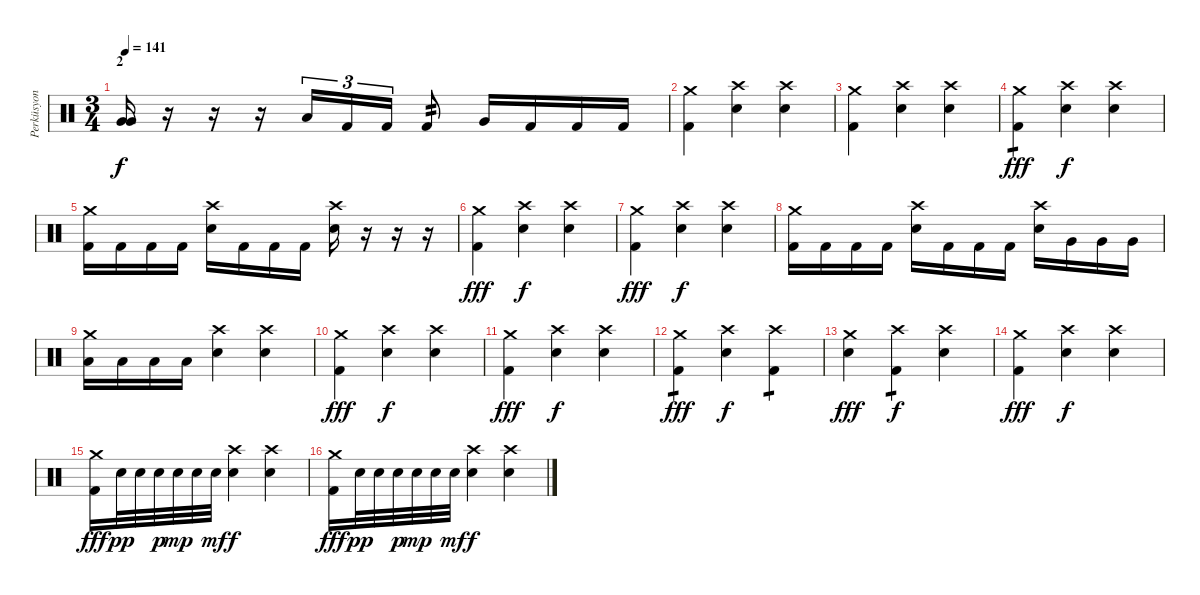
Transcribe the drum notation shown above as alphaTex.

\track ("Perküsyon" "Perküsyon") {instrument percussion}
\staff {score}
\articulation defaults
\ts (3 4)
\section ("" "2")
\tempo 141
\clef neutral
\ks c
("Very Low Tom (hit)" "Very Low Tom (hit)").16{dy f} r.16 r.16 r.16 "Low Floor Tom (hit)".16{tu (3 2)} "Kick (hit) 2".16{tu (3 2)} "Kick (hit) 2".16{tu (3 2)} "Kick (hit) 2".8{tp 2} "Very Low Tom (hit)".16 "Kick (hit) 2".16 "Kick (hit) 2".16 "Kick (hit) 2".16 |
("Crash medium (hit)" "Kick (hit) 2").4 ("Crash high (hit)" "Electric Snare (hit)").4 ("Crash high (hit)" "Electric Snare (hit)").4 |
("Crash medium (hit)" "Kick (hit) 2").4 ("Crash high (hit)" "Electric Snare (hit)").4 ("Crash high (hit)" "Electric Snare (hit)").4 |
("Crash medium (hit)" "Kick (hit) 2").4{tp 1 dy fff} ("Crash high (hit)" "Electric Snare (hit)").4{dy f} ("Crash high (hit)" "Electric Snare (hit)").4 |
("Crash medium (hit)" "Kick (hit) 2").16 "Kick (hit) 2".16 "Kick (hit) 2".16 "Kick (hit) 2".16 ("Crash high (hit)" "Electric Snare (hit)").16 "Kick (hit) 2".16 "Kick (hit) 2".16 "Kick (hit) 2".16 ("Crash high (hit)" "Electric Snare (hit)").16 r.16 r.16 r.16 |
("Crash medium (hit)" "Kick (hit) 2").4{dy fff} ("Crash high (hit)" "Electric Snare (hit)").4{dy f} ("Crash high (hit)" "Electric Snare (hit)").4 |
("Crash medium (hit)" "Kick (hit) 2").4{dy fff} ("Crash high (hit)" "Electric Snare (hit)").4{dy f} ("Crash high (hit)" "Electric Snare (hit)").4 |
("Crash medium (hit)" "Kick (hit) 2").16 "Kick (hit) 2".16 "Kick (hit) 2".16 "Kick (hit) 2".16 ("Crash high (hit)" "Electric Snare (hit)").16 "Kick (hit) 2".16 "Kick (hit) 2".16 "Kick (hit) 2".16 ("Crash high (hit)" "Electric Snare (hit)").16 "Very Low Tom (hit)".16 "Very Low Tom (hit)".16 "Very Low Tom (hit)".16 |
("Crash medium (hit)" "Low Floor Tom (hit)").16 "Low Floor Tom (hit)".16 "Low Floor Tom (hit)".16 "Low Floor Tom (hit)".16 ("Crash high (hit)" "Electric Snare (hit)").4 ("Crash high (hit)" "Electric Snare (hit)").4 |
("Crash medium (hit)" "Kick (hit) 2").4{dy fff} ("Crash high (hit)" "Electric Snare (hit)").4{dy f} ("Crash high (hit)" "Electric Snare (hit)").4 |
("Crash medium (hit)" "Kick (hit) 2").4{dy fff} ("Crash high (hit)" "Electric Snare (hit)").4{dy f} ("Crash high (hit)" "Electric Snare (hit)").4 |
("Crash medium (hit)" "Kick (hit) 2").4{tp 1 dy fff} ("Crash high (hit)" "Electric Snare (hit)").4{dy f} ("Crash high (hit)" "Kick (hit) 2").4{tp 1} |
("Crash medium (hit)" "Electric Snare (hit)").4{dy fff} ("Crash high (hit)" "Kick (hit) 2").4{tp 1 dy f} ("Crash high (hit)" "Electric Snare (hit)").4 |
("Crash medium (hit)" "Kick (hit) 2").4{dy fff} ("Crash high (hit)" "Electric Snare (hit)").4{dy f} ("Crash high (hit)" "Electric Snare (hit)").4 |
("Crash medium (hit)" "Kick (hit) 2").16{dy fff} "Electric Snare (hit)".32{dy pp} "Electric Snare (hit)".32 "Electric Snare (hit)".32{dy p} "Electric Snare (hit)".32{dy mp} "Electric Snare (hit)".32 "Electric Snare (hit)".32{dy mf} ("Crash high (hit)" "Electric Snare (hit)").4{dy f} ("Crash high (hit)" "Electric Snare (hit)").4 |
("Crash medium (hit)" "Kick (hit) 2").16{dy fff} "Electric Snare (hit)".32{dy pp} "Electric Snare (hit)".32 "Electric Snare (hit)".32{dy p} "Electric Snare (hit)".32{dy mp} "Electric Snare (hit)".32 "Electric Snare (hit)".32{dy mf} ("Crash high (hit)" "Electric Snare (hit)").4{dy f} ("Crash high (hit)" "Electric Snare (hit)").4
